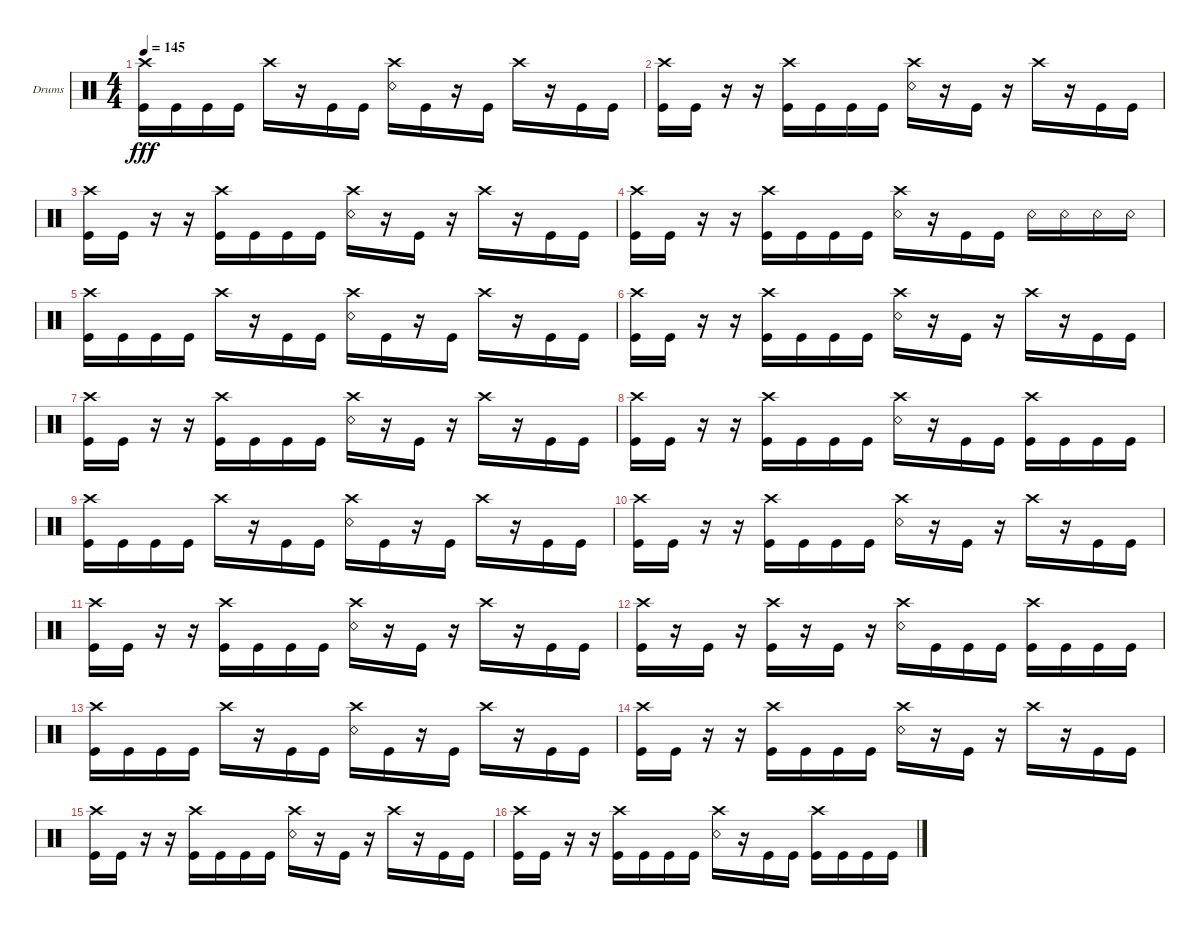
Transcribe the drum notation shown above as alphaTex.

\defaultSystemsLayout 4
\bracketExtendMode groupsimilarinstruments
\firstSystemTrackNameOrientation horizontal
\otherSystemsTrackNameOrientation horizontal
\track ("Chris Khoury" "Drums") {instrument percussion}
\staff {score}
\articulation defaults
\ts (4 4)
\tempo 145
\clef neutral
\ks c
("Kick (hit)" "Crash high (hit)").16{dy fff} "Kick (hit)".16 "Kick (hit)".16 "Kick (hit)".16 "Crash high (hit)".16 r.16 "Kick (hit)".16 "Kick (hit)".16 ("Snare (rim shot)" "Crash high (hit)").16 "Kick (hit)".16 r.16 "Kick (hit)".16 "Crash high (hit)".16 r.16 "Kick (hit)".16 "Kick (hit)".16 |
("Crash high (hit)" "Kick (hit)").16 "Kick (hit)".16 r.16 r.16 ("Crash high (hit)" "Kick (hit)").16 "Kick (hit)".16 "Kick (hit)".16 "Kick (hit)".16 ("Crash high (hit)" "Snare (rim shot)").16 r.16 "Kick (hit)".16 r.16 "Crash high (hit)".16 r.16 "Kick (hit)".16 "Kick (hit)".16 |
("Crash high (hit)" "Kick (hit)").16 "Kick (hit)".16 r.16 r.16 ("Crash high (hit)" "Kick (hit)").16 "Kick (hit)".16 "Kick (hit)".16 "Kick (hit)".16 ("Crash high (hit)" "Snare (rim shot)").16 r.16 "Kick (hit)".16 r.16 "Crash high (hit)".16 r.16 "Kick (hit)".16 "Kick (hit)".16 |
("Kick (hit)" "Crash high (hit)").16 "Kick (hit)".16 r.16 r.16 ("Kick (hit)" "Crash high (hit)").16 "Kick (hit)".16 "Kick (hit)".16 "Kick (hit)".16 ("Snare (rim shot)" "Crash high (hit)").16 r.16 "Kick (hit)".16 "Kick (hit)".16 "Snare (rim shot)".16 "Snare (rim shot)".16 "Snare (rim shot)".16 "Snare (rim shot)".16 |
("Kick (hit)" "Crash high (hit)").16 "Kick (hit)".16 "Kick (hit)".16 "Kick (hit)".16 "Crash high (hit)".16 r.16 "Kick (hit)".16 "Kick (hit)".16 ("Snare (rim shot)" "Crash high (hit)").16 "Kick (hit)".16 r.16 "Kick (hit)".16 "Crash high (hit)".16 r.16 "Kick (hit)".16 "Kick (hit)".16 |
("Crash high (hit)" "Kick (hit)").16 "Kick (hit)".16 r.16 r.16 ("Crash high (hit)" "Kick (hit)").16 "Kick (hit)".16 "Kick (hit)".16 "Kick (hit)".16 ("Crash high (hit)" "Snare (rim shot)").16 r.16 "Kick (hit)".16 r.16 "Crash high (hit)".16 r.16 "Kick (hit)".16 "Kick (hit)".16 |
("Kick (hit)" "Crash high (hit)").16 "Kick (hit)".16 r.16 r.16 ("Crash high (hit)" "Kick (hit)").16 "Kick (hit)".16 "Kick (hit)".16 "Kick (hit)".16 ("Crash high (hit)" "Snare (rim shot)").16 r.16 "Kick (hit)".16 r.16 "Crash high (hit)".16 r.16 "Kick (hit)".16 "Kick (hit)".16 |
("Kick (hit)" "Crash high (hit)").16 "Kick (hit)".16 r.16 r.16 ("Crash high (hit)" "Kick (hit)").16 "Kick (hit)".16 "Kick (hit)".16 "Kick (hit)".16 ("Crash high (hit)" "Snare (rim shot)").16 r.16 "Kick (hit)".16 "Kick (hit)".16 ("Crash high (hit)" "Kick (hit)").16 "Kick (hit)".16 "Kick (hit)".16 "Kick (hit)".16 |
("Kick (hit)" "Crash high (hit)").16 "Kick (hit)".16 "Kick (hit)".16 "Kick (hit)".16 "Crash high (hit)".16 r.16 "Kick (hit)".16 "Kick (hit)".16 ("Snare (rim shot)" "Crash high (hit)").16 "Kick (hit)".16 r.16 "Kick (hit)".16 "Crash high (hit)".16 r.16 "Kick (hit)".16 "Kick (hit)".16 |
("Crash high (hit)" "Kick (hit)").16 "Kick (hit)".16 r.16 r.16 ("Crash high (hit)" "Kick (hit)").16 "Kick (hit)".16 "Kick (hit)".16 "Kick (hit)".16 ("Crash high (hit)" "Snare (rim shot)").16 r.16 "Kick (hit)".16 r.16 "Crash high (hit)".16 r.16 "Kick (hit)".16 "Kick (hit)".16 |
("Crash high (hit)" "Kick (hit)").16 "Kick (hit)".16 r.16 r.16 ("Crash high (hit)" "Kick (hit)").16 "Kick (hit)".16 "Kick (hit)".16 "Kick (hit)".16 ("Crash high (hit)" "Snare (rim shot)").16 r.16 "Kick (hit)".16 r.16 "Crash high (hit)".16 r.16 "Kick (hit)".16 "Kick (hit)".16 |
("Kick (hit)" "Crash high (hit)").16 r.16 "Kick (hit)".16 r.16 ("Kick (hit)" "Crash high (hit)").16 r.16 "Kick (hit)".16 r.16 ("Crash high (hit)" "Snare (rim shot)").16 "Kick (hit)".16 "Kick (hit)".16 "Kick (hit)".16 ("Crash high (hit)" "Kick (hit)").16 "Kick (hit)".16 "Kick (hit)".16 "Kick (hit)".16 |
("Kick (hit)" "Crash high (hit)").16 "Kick (hit)".16 "Kick (hit)".16 "Kick (hit)".16 "Crash high (hit)".16 r.16 "Kick (hit)".16 "Kick (hit)".16 ("Snare (rim shot)" "Crash high (hit)").16 "Kick (hit)".16 r.16 "Kick (hit)".16 "Crash high (hit)".16 r.16 "Kick (hit)".16 "Kick (hit)".16 |
("Crash high (hit)" "Kick (hit)").16 "Kick (hit)".16 r.16 r.16 ("Crash high (hit)" "Kick (hit)").16 "Kick (hit)".16 "Kick (hit)".16 "Kick (hit)".16 ("Crash high (hit)" "Snare (rim shot)").16 r.16 "Kick (hit)".16 r.16 "Crash high (hit)".16 r.16 "Kick (hit)".16 "Kick (hit)".16 |
("Kick (hit)" "Crash high (hit)").16 "Kick (hit)".16 r.16 r.16 ("Crash high (hit)" "Kick (hit)").16 "Kick (hit)".16 "Kick (hit)".16 "Kick (hit)".16 ("Crash high (hit)" "Snare (rim shot)").16 r.16 "Kick (hit)".16 r.16 "Crash high (hit)".16 r.16 "Kick (hit)".16 "Kick (hit)".16 |
("Kick (hit)" "Crash high (hit)").16 "Kick (hit)".16 r.16 r.16 ("Crash high (hit)" "Kick (hit)").16 "Kick (hit)".16 "Kick (hit)".16 "Kick (hit)".16 ("Crash high (hit)" "Snare (rim shot)").16 r.16 "Kick (hit)".16 "Kick (hit)".16 ("Crash high (hit)" "Kick (hit)").16 "Kick (hit)".16 "Kick (hit)".16 "Kick (hit)".16
